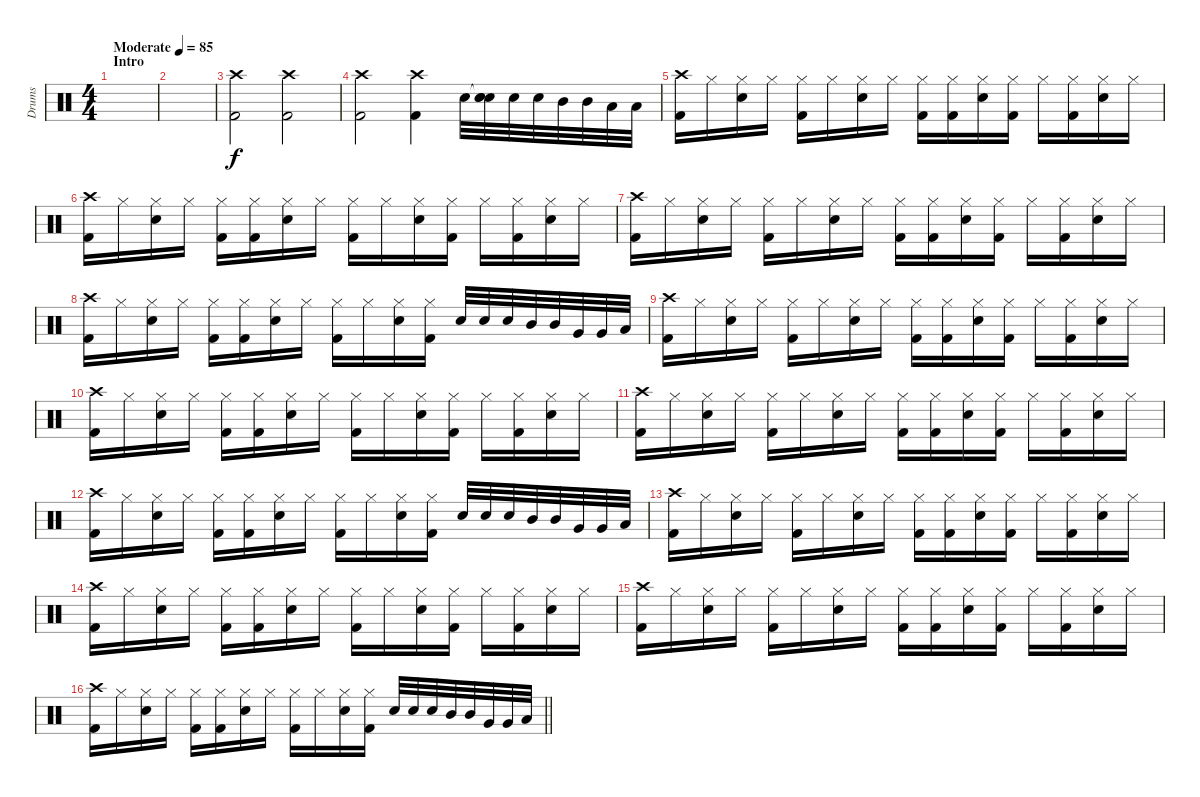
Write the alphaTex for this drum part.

\track ("Drums" "Drums") {instrument percussion}
\staff {score}
\articulation defaults
\ts (4 4)
\section ("" "Intro")
\tempo (85 "Moderate")
\clef neutral
\ks c
|
|
("Crash high (hit)" "Kick (hit) 2").2 ("Crash high (hit)" "Kick (hit) 2").2 |
("Crash high (hit)" "Kick (hit) 2").2 ("Crash high (hit)" "Kick (hit) 2").4 "Snare (hit) 2".32 ("Snare (hit)"{t} "Snare (hit) 2" "Snare (hit)").32 "Snare (hit) 2".32 "Snare (hit) 2".32 "Mid Tom (hit)".32 "Mid Tom (hit)".32 "Low Floor Tom (hit)".32 "Low Floor Tom (hit)".32 |
("Crash high (hit)" "Kick (hit) 2").16 "Hi-Hat (closed)".16 ("Hi-Hat (closed)" "Snare (hit) 2").16 "Hi-Hat (closed)".16 ("Hi-Hat (closed)" "Kick (hit) 2").16 "Hi-Hat (closed)".16 ("Hi-Hat (closed)" "Snare (hit) 2").16 "Hi-Hat (closed)".16 ("Hi-Hat (closed)" "Kick (hit) 2").16 ("Hi-Hat (closed)" "Kick (hit) 2").16 ("Hi-Hat (closed)" "Snare (hit) 2").16 ("Hi-Hat (closed)" "Kick (hit) 2").16 "Hi-Hat (closed)".16 ("Hi-Hat (closed)" "Kick (hit) 2").16 ("Hi-Hat (closed)" "Snare (hit) 2").16 "Hi-Hat (closed)".16 |
("Crash high (hit)" "Kick (hit) 2").16 "Hi-Hat (closed)".16 ("Hi-Hat (closed)" "Snare (hit) 2").16 "Hi-Hat (closed)".16 ("Hi-Hat (closed)" "Kick (hit) 2").16 ("Hi-Hat (closed)" "Kick (hit) 2").16 ("Hi-Hat (closed)" "Snare (hit) 2").16 "Hi-Hat (closed)".16 ("Hi-Hat (closed)" "Kick (hit) 2").16 "Hi-Hat (closed)".16 ("Hi-Hat (closed)" "Snare (hit) 2").16 ("Hi-Hat (closed)" "Kick (hit) 2").16 "Hi-Hat (closed)".16 ("Hi-Hat (closed)" "Kick (hit) 2").16 ("Hi-Hat (closed)" "Snare (hit) 2").16 "Hi-Hat (closed)".16 |
("Crash high (hit)" "Kick (hit) 2").16 "Hi-Hat (closed)".16 ("Hi-Hat (closed)" "Snare (hit) 2").16 "Hi-Hat (closed)".16 ("Hi-Hat (closed)" "Kick (hit) 2").16 "Hi-Hat (closed)".16 ("Hi-Hat (closed)" "Snare (hit) 2").16 "Hi-Hat (closed)".16 ("Hi-Hat (closed)" "Kick (hit) 2").16 ("Hi-Hat (closed)" "Kick (hit) 2").16 ("Hi-Hat (closed)" "Snare (hit) 2").16 ("Hi-Hat (closed)" "Kick (hit) 2").16 "Hi-Hat (closed)".16 ("Hi-Hat (closed)" "Kick (hit) 2").16 ("Hi-Hat (closed)" "Snare (hit) 2").16 "Hi-Hat (closed)".16 |
("Crash high (hit)" "Kick (hit) 2").16 "Hi-Hat (closed)".16 ("Hi-Hat (closed)" "Snare (hit) 2").16 "Hi-Hat (closed)".16 ("Hi-Hat (closed)" "Kick (hit) 2").16 ("Hi-Hat (closed)" "Kick (hit) 2").16 ("Hi-Hat (closed)" "Snare (hit) 2").16 "Hi-Hat (closed)".16 ("Hi-Hat (closed)" "Kick (hit) 2").16 "Hi-Hat (closed)".16 ("Hi-Hat (closed)" "Snare (hit) 2").16 ("Hi-Hat (closed)" "Kick (hit) 2").16 "Snare (hit) 2".32 "Snare (hit) 2".32 "Snare (hit) 2".32 "Mid Tom (hit)".32 "Mid Tom (hit)".32 "Very Low Tom (hit)".32 "Very Low Tom (hit)".32 "Low Floor Tom (hit)".32 |
("Crash high (hit)" "Kick (hit) 2").16 "Hi-Hat (closed)".16 ("Hi-Hat (closed)" "Snare (hit) 2").16 "Hi-Hat (closed)".16 ("Hi-Hat (closed)" "Kick (hit) 2").16 "Hi-Hat (closed)".16 ("Hi-Hat (closed)" "Snare (hit) 2").16 "Hi-Hat (closed)".16 ("Hi-Hat (closed)" "Kick (hit) 2").16 ("Hi-Hat (closed)" "Kick (hit) 2").16 ("Hi-Hat (closed)" "Snare (hit) 2").16 ("Hi-Hat (closed)" "Kick (hit) 2").16 "Hi-Hat (closed)".16 ("Hi-Hat (closed)" "Kick (hit) 2").16 ("Hi-Hat (closed)" "Snare (hit) 2").16 "Hi-Hat (closed)".16 |
("Crash high (hit)" "Kick (hit) 2").16 "Hi-Hat (closed)".16 ("Hi-Hat (closed)" "Snare (hit) 2").16 "Hi-Hat (closed)".16 ("Hi-Hat (closed)" "Kick (hit) 2").16 ("Hi-Hat (closed)" "Kick (hit) 2").16 ("Hi-Hat (closed)" "Snare (hit) 2").16 "Hi-Hat (closed)".16 ("Hi-Hat (closed)" "Kick (hit) 2").16 "Hi-Hat (closed)".16 ("Hi-Hat (closed)" "Snare (hit) 2").16 ("Hi-Hat (closed)" "Kick (hit) 2").16 "Hi-Hat (closed)".16 ("Hi-Hat (closed)" "Kick (hit) 2").16 ("Hi-Hat (closed)" "Snare (hit) 2").16 "Hi-Hat (closed)".16 |
("Crash high (hit)" "Kick (hit) 2").16 "Hi-Hat (closed)".16 ("Hi-Hat (closed)" "Snare (hit) 2").16 "Hi-Hat (closed)".16 ("Hi-Hat (closed)" "Kick (hit) 2").16 "Hi-Hat (closed)".16 ("Hi-Hat (closed)" "Snare (hit) 2").16 "Hi-Hat (closed)".16 ("Hi-Hat (closed)" "Kick (hit) 2").16 ("Hi-Hat (closed)" "Kick (hit) 2").16 ("Hi-Hat (closed)" "Snare (hit) 2").16 ("Hi-Hat (closed)" "Kick (hit) 2").16 "Hi-Hat (closed)".16 ("Hi-Hat (closed)" "Kick (hit) 2").16 ("Hi-Hat (closed)" "Snare (hit) 2").16 "Hi-Hat (closed)".16 |
("Crash high (hit)" "Kick (hit) 2").16 "Hi-Hat (closed)".16 ("Hi-Hat (closed)" "Snare (hit) 2").16 "Hi-Hat (closed)".16 ("Hi-Hat (closed)" "Kick (hit) 2").16 ("Hi-Hat (closed)" "Kick (hit) 2").16 ("Hi-Hat (closed)" "Snare (hit) 2").16 "Hi-Hat (closed)".16 ("Hi-Hat (closed)" "Kick (hit) 2").16 "Hi-Hat (closed)".16 ("Hi-Hat (closed)" "Snare (hit) 2").16 ("Hi-Hat (closed)" "Kick (hit) 2").16 "Snare (hit) 2".32 "Snare (hit) 2".32 "Snare (hit) 2".32 "Mid Tom (hit)".32 "Mid Tom (hit)".32 "Very Low Tom (hit)".32 "Very Low Tom (hit)".32 "Low Floor Tom (hit)".32 |
("Crash high (hit)" "Kick (hit) 2").16 "Hi-Hat (closed)".16 ("Hi-Hat (closed)" "Snare (hit) 2").16 "Hi-Hat (closed)".16 ("Hi-Hat (closed)" "Kick (hit) 2").16 "Hi-Hat (closed)".16 ("Hi-Hat (closed)" "Snare (hit) 2").16 "Hi-Hat (closed)".16 ("Hi-Hat (closed)" "Kick (hit) 2").16 ("Hi-Hat (closed)" "Kick (hit) 2").16 ("Hi-Hat (closed)" "Snare (hit) 2").16 ("Hi-Hat (closed)" "Kick (hit) 2").16 "Hi-Hat (closed)".16 ("Hi-Hat (closed)" "Kick (hit) 2").16 ("Hi-Hat (closed)" "Snare (hit) 2").16 "Hi-Hat (closed)".16 |
("Crash high (hit)" "Kick (hit) 2").16 "Hi-Hat (closed)".16 ("Hi-Hat (closed)" "Snare (hit) 2").16 "Hi-Hat (closed)".16 ("Hi-Hat (closed)" "Kick (hit) 2").16 ("Hi-Hat (closed)" "Kick (hit) 2").16 ("Hi-Hat (closed)" "Snare (hit) 2").16 "Hi-Hat (closed)".16 ("Hi-Hat (closed)" "Kick (hit) 2").16 "Hi-Hat (closed)".16 ("Hi-Hat (closed)" "Snare (hit) 2").16 ("Hi-Hat (closed)" "Kick (hit) 2").16 "Hi-Hat (closed)".16 ("Hi-Hat (closed)" "Kick (hit) 2").16 ("Hi-Hat (closed)" "Snare (hit) 2").16 "Hi-Hat (closed)".16 |
("Crash high (hit)" "Kick (hit) 2").16 "Hi-Hat (closed)".16 ("Hi-Hat (closed)" "Snare (hit) 2").16 "Hi-Hat (closed)".16 ("Hi-Hat (closed)" "Kick (hit) 2").16 "Hi-Hat (closed)".16 ("Hi-Hat (closed)" "Snare (hit) 2").16 "Hi-Hat (closed)".16 ("Hi-Hat (closed)" "Kick (hit) 2").16 ("Hi-Hat (closed)" "Kick (hit) 2").16 ("Hi-Hat (closed)" "Snare (hit) 2").16 ("Hi-Hat (closed)" "Kick (hit) 2").16 "Hi-Hat (closed)".16 ("Hi-Hat (closed)" "Kick (hit) 2").16 ("Hi-Hat (closed)" "Snare (hit) 2").16 "Hi-Hat (closed)".16 |
\barLineRight lightlight
("Crash high (hit)" "Kick (hit) 2").16 "Hi-Hat (closed)".16 ("Hi-Hat (closed)" "Snare (hit) 2").16 "Hi-Hat (closed)".16 ("Hi-Hat (closed)" "Kick (hit) 2").16 ("Hi-Hat (closed)" "Kick (hit) 2").16 ("Hi-Hat (closed)" "Snare (hit) 2").16 "Hi-Hat (closed)".16 ("Hi-Hat (closed)" "Kick (hit) 2").16 "Hi-Hat (closed)".16 ("Hi-Hat (closed)" "Snare (hit) 2").16 ("Hi-Hat (closed)" "Kick (hit) 2").16 "Snare (hit) 2".32 "Snare (hit) 2".32 "Snare (hit) 2".32 "Mid Tom (hit)".32 "Mid Tom (hit)".32 "Very Low Tom (hit)".32 "Very Low Tom (hit)".32 "Low Floor Tom (hit)".32
